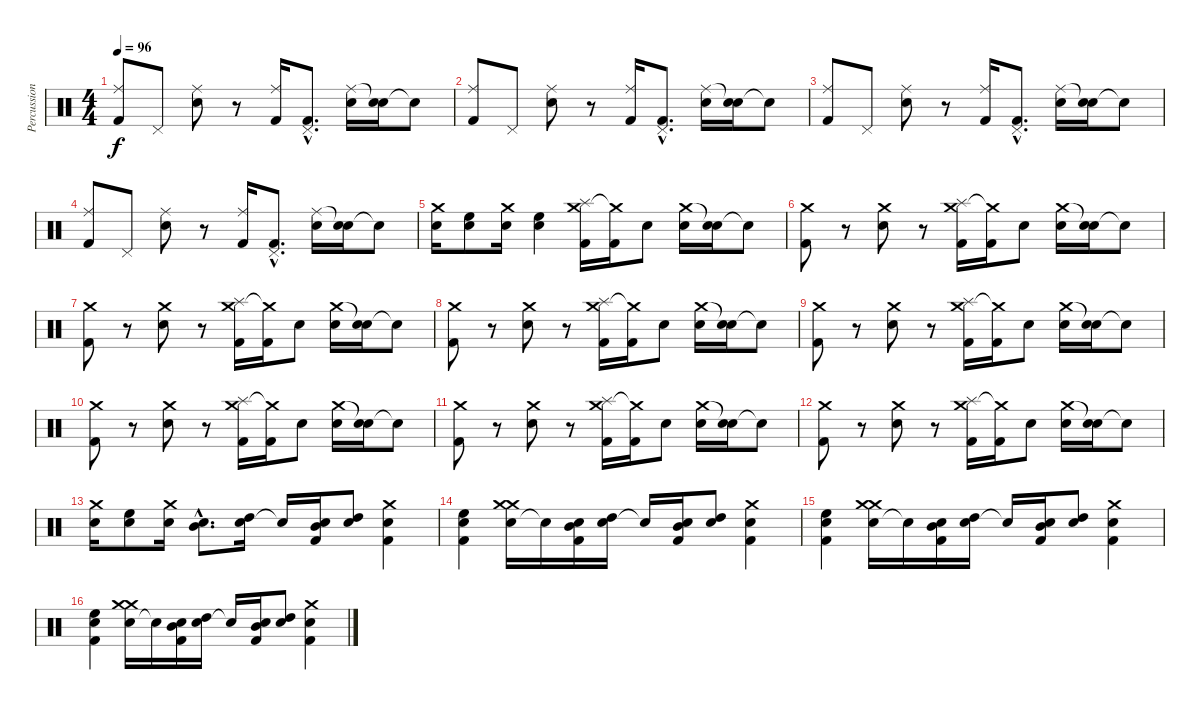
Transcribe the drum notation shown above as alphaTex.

\track ("Percussion" "Percussion") {instrument percussion}
\staff {score}
\articulation defaults
\ts (4 4)
\tempo 96
\clef neutral
\ks c
("Kick (hit) 2" "Ride (middle)").8{dy f} "Pedal Hi-Hat (hit)".8 ("Electric Snare (hit)" "Ride (middle)").8 r.8 ("Kick (hit) 2" "Ride (middle)").16 ("Kick (hit) 2"{hac} "Pedal Hi-Hat (hit)"{hac}).8{d} ("Electric Snare (hit)" "Ride (middle)").16 ("Electric Snare (hit)" "Snare (hit)"{t}).16 "Snare (hit)"{t}.8 |
("Kick (hit) 2" "Ride (middle)").8 "Pedal Hi-Hat (hit)".8 ("Electric Snare (hit)" "Ride (middle)").8 r.8 ("Kick (hit) 2" "Ride (middle)").16 ("Kick (hit) 2"{hac} "Pedal Hi-Hat (hit)"{hac}).8{d} ("Electric Snare (hit)" "Ride (middle)").16 ("Electric Snare (hit)" "Snare (hit)"{t}).16 "Snare (hit)"{t}.8 |
("Kick (hit) 2" "Ride (middle)").8 "Pedal Hi-Hat (hit)".8 ("Electric Snare (hit)" "Ride (middle)").8 r.8 ("Kick (hit) 2" "Ride (middle)").16 ("Kick (hit) 2"{hac} "Pedal Hi-Hat (hit)"{hac}).8{d} ("Electric Snare (hit)" "Ride (middle)").16 ("Electric Snare (hit)" "Snare (hit)"{t}).16 "Snare (hit)"{t}.8 |
("Kick (hit) 2" "Ride (middle)").8 "Pedal Hi-Hat (hit)".8 ("Electric Snare (hit)" "Ride (middle)").8 r.8 ("Kick (hit) 2" "Ride (middle)").16 ("Kick (hit) 2"{hac} "Pedal Hi-Hat (hit)"{hac}).8{d} ("Electric Snare (hit)" "Ride (middle)").16 ("Electric Snare (hit)" "Snare (hit)"{t}).16 "Snare (hit)"{t}.8 |
("Electric Snare (hit)" "Crash medium (hit)").16 ("Electric Snare (hit)" "High Floor Tom (hit)").8 ("Electric Snare (hit)" "Crash medium (hit)").16 ("Electric Snare (hit)" "High Floor Tom (hit)").4 ("Kick (hit) 2" "Crash medium (hit)" "Splash (hit)").16 ("Kick (hit) 2" "Crash medium (hit)"{t}).16 "Electric Snare (hit)".8 ("Electric Snare (hit)" "Crash medium (hit)").16 ("Electric Snare (hit)" "Snare (hit)"{t}).16 "Snare (hit)"{t}.8 |
("Kick (hit) 2" "Crash medium (hit)").8 r.8 ("Electric Snare (hit)" "Crash medium (hit)").8 r.8 ("Kick (hit) 2" "Crash medium (hit)" "Splash (hit)").16 ("Kick (hit) 2" "Crash medium (hit)"{t}).16 "Electric Snare (hit)".8 ("Electric Snare (hit)" "Crash medium (hit)").16 ("Electric Snare (hit)" "Snare (hit)"{t}).16 "Snare (hit)"{t}.8 |
("Kick (hit) 2" "Crash medium (hit)").8 r.8 ("Electric Snare (hit)" "Crash medium (hit)").8 r.8 ("Kick (hit) 2" "Crash medium (hit)" "Splash (hit)").16 ("Kick (hit) 2" "Crash medium (hit)"{t}).16 "Electric Snare (hit)".8 ("Electric Snare (hit)" "Crash medium (hit)").16 ("Electric Snare (hit)" "Snare (hit)"{t}).16 "Snare (hit)"{t}.8 |
("Kick (hit) 2" "Crash medium (hit)").8 r.8 ("Electric Snare (hit)" "Crash medium (hit)").8 r.8 ("Kick (hit) 2" "Crash medium (hit)" "Splash (hit)").16 ("Kick (hit) 2" "Crash medium (hit)"{t}).16 "Electric Snare (hit)".8 ("Electric Snare (hit)" "Crash medium (hit)").16 ("Electric Snare (hit)" "Snare (hit)"{t}).16 "Snare (hit)"{t}.8 |
("Kick (hit) 2" "Crash medium (hit)").8 r.8 ("Electric Snare (hit)" "Crash medium (hit)").8 r.8 ("Kick (hit) 2" "Crash medium (hit)" "Splash (hit)").16 ("Kick (hit) 2" "Crash medium (hit)"{t}).16 "Electric Snare (hit)".8 ("Electric Snare (hit)" "Crash medium (hit)").16 ("Electric Snare (hit)" "Snare (hit)"{t}).16 "Snare (hit)"{t}.8 |
("Kick (hit) 2" "Crash medium (hit)").8 r.8 ("Electric Snare (hit)" "Crash medium (hit)").8 r.8 ("Kick (hit) 2" "Crash medium (hit)" "Splash (hit)").16 ("Kick (hit) 2" "Crash medium (hit)"{t}).16 "Electric Snare (hit)".8 ("Electric Snare (hit)" "Crash medium (hit)").16 ("Electric Snare (hit)" "Snare (hit)"{t}).16 "Snare (hit)"{t}.8 |
("Kick (hit) 2" "Crash medium (hit)").8 r.8 ("Electric Snare (hit)" "Crash medium (hit)").8 r.8 ("Kick (hit) 2" "Crash medium (hit)" "Splash (hit)").16 ("Kick (hit) 2" "Crash medium (hit)"{t}).16 "Electric Snare (hit)".8 ("Electric Snare (hit)" "Crash medium (hit)").16 ("Electric Snare (hit)" "Snare (hit)"{t}).16 "Snare (hit)"{t}.8 |
("Kick (hit) 2" "Crash medium (hit)").8 r.8 ("Electric Snare (hit)" "Crash medium (hit)").8 r.8 ("Kick (hit) 2" "Crash medium (hit)" "Splash (hit)").16 ("Kick (hit) 2" "Crash medium (hit)"{t}).16 "Electric Snare (hit)".8 ("Electric Snare (hit)" "Crash medium (hit)").16 ("Electric Snare (hit)" "Snare (hit)"{t}).16 "Snare (hit)"{t}.8 |
("Electric Snare (hit)" "Crash medium (hit)").16 ("Electric Snare (hit)" "High Floor Tom (hit)").8 ("Electric Snare (hit)" "Crash medium (hit)").16 ("Electric Snare (hit)"{hac} "Mid Tom (hit)"{hac}).8{d} ("Electric Snare (hit)" "High Tom (hit)").16 "Electric Snare (hit)"{t}.16 ("Electric Snare (hit)" "Mid Tom (hit)" "Kick (hit) 2").16 ("Electric Snare (hit)" "High Tom (hit)").8 ("Electric Snare (hit)" "Kick (hit) 2" "Crash medium (hit)").4 |
("Electric Snare (hit)" "High Floor Tom (hit)" "Kick (hit) 2").4 ("Electric Snare (hit)" "Crash medium (hit)" "Crash medium (hit)").16 "Electric Snare (hit)"{t}.16 ("Electric Snare (hit)" "Mid Tom (hit)" "Kick (hit) 2").16 ("Electric Snare (hit)" "High Tom (hit)").16 "Electric Snare (hit)"{t}.16 ("Electric Snare (hit)" "Mid Tom (hit)" "Kick (hit) 2").16 ("Electric Snare (hit)" "High Tom (hit)").8 ("Electric Snare (hit)" "Kick (hit) 2" "Crash medium (hit)").4 |
("Electric Snare (hit)" "High Floor Tom (hit)" "Kick (hit) 2").4 ("Electric Snare (hit)" "Crash medium (hit)" "Crash medium (hit)").16 "Electric Snare (hit)"{t}.16 ("Electric Snare (hit)" "Mid Tom (hit)" "Kick (hit) 2").16 ("Electric Snare (hit)" "High Tom (hit)").16 "Electric Snare (hit)"{t}.16 ("Electric Snare (hit)" "Mid Tom (hit)" "Kick (hit) 2").16 ("Electric Snare (hit)" "High Tom (hit)").8 ("Electric Snare (hit)" "Kick (hit) 2" "Crash medium (hit)").4 |
("Electric Snare (hit)" "High Floor Tom (hit)" "Kick (hit) 2").4 ("Electric Snare (hit)" "Crash medium (hit)" "Crash medium (hit)").16 "Electric Snare (hit)"{t}.16 ("Electric Snare (hit)" "Mid Tom (hit)" "Kick (hit) 2").16 ("Electric Snare (hit)" "High Tom (hit)").16 "Electric Snare (hit)"{t}.16 ("Electric Snare (hit)" "Mid Tom (hit)" "Kick (hit) 2").16 ("Electric Snare (hit)" "High Tom (hit)").8 ("Electric Snare (hit)" "Kick (hit) 2" "Crash medium (hit)").4
